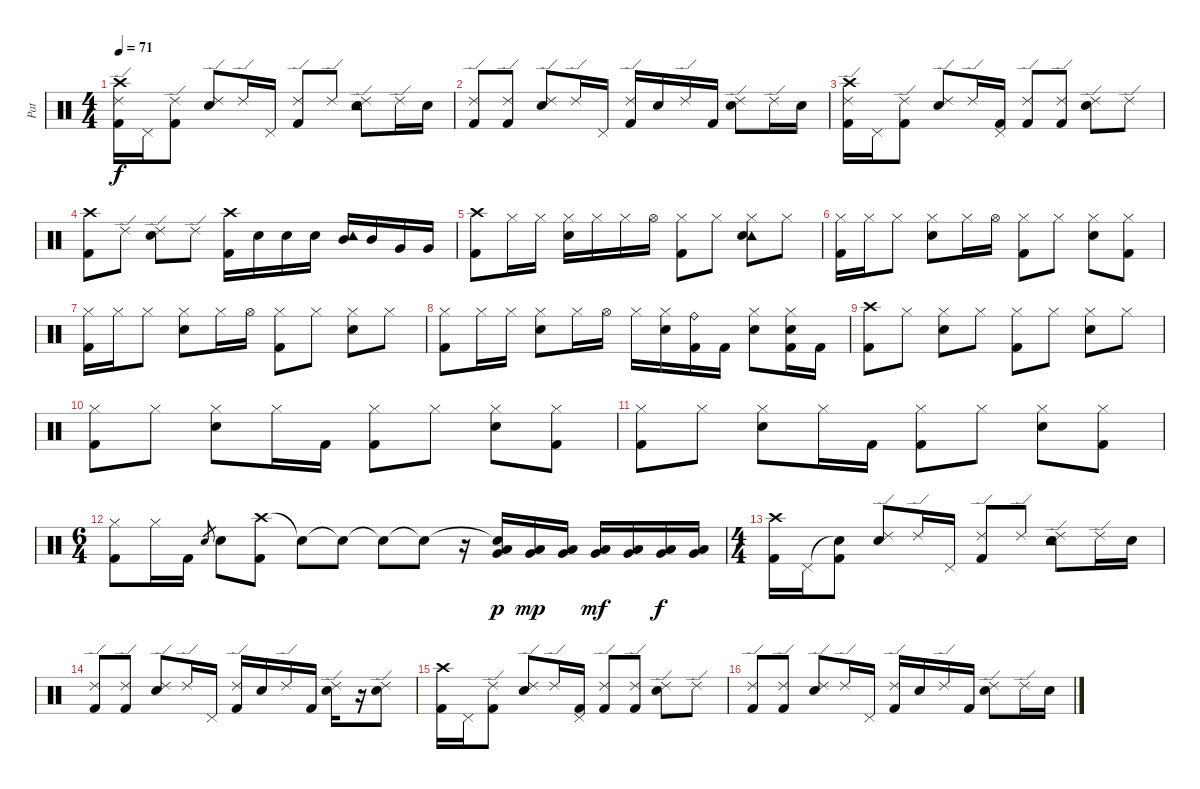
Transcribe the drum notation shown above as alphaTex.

\track ("Pat" "Pat") {instrument percussion}
\staff {score}
\articulation defaults
\ts (4 4)
\tempo 71
\clef neutral
\ks c
("Crash high (hit)" "Ride (edge) 2" "Kick (hit) 2").16{dy f} "Pedal Hi-Hat (hit)".16 ("Ride (edge) 2" "Kick (hit) 2").8 ("Ride (edge) 2" "Snare (hit) 2").8 "Ride (edge) 2".16 "Pedal Hi-Hat (hit)".16 ("Ride (edge) 2" "Kick (hit) 2").8 "Ride (edge) 2".8 ("Tambourine (hit)" "Ride (edge) 2" "Snare (hit) 2").8 "Ride (edge) 2".16 "Snare (hit) 2".16 |
("Ride (edge) 2" "Kick (hit) 2").8 ("Ride (edge) 2" "Kick (hit) 2").8 ("Ride (edge) 2" "Snare (hit) 2").8 "Ride (edge) 2".16 "Pedal Hi-Hat (hit)".16 ("Ride (edge) 2" "Kick (hit) 2").16 "Snare (hit) 2".16 "Ride (edge) 2".16 "Kick (hit) 2".16 ("Ride (edge) 2" "Snare (hit) 2").8 "Ride (edge) 2".16 "Snare (hit) 2".16 |
("Crash high (hit)" "Ride (edge) 2" "Kick (hit) 2").16 "Pedal Hi-Hat (hit)".16 ("Ride (edge) 2" "Kick (hit) 2").8 ("Ride (edge) 2" "Snare (hit) 2").8 "Ride (edge) 2".16 ("Pedal Hi-Hat (hit)" "Kick (hit) 2").16 ("Ride (edge) 2" "Kick (hit) 2").8 ("Ride (edge) 2" "Kick (hit) 2").8 ("Ride (edge) 2" "Snare (hit) 2").8 "Ride (edge) 2".8 |
("Crash high (hit)" "Kick (hit) 2").8 "Ride (edge) 2".8 ("Ride (edge) 2" "Snare (hit) 2").8 "Ride (edge) 2".8 ("Crash high (hit)" "Kick (hit) 2").16 "Snare (hit) 2".16 "Snare (hit) 2".16 "Snare (hit) 2".16 ("Tambourine (hit)" "Mid Tom (hit)").16 "Mid Tom (hit)".16 "Very Low Tom (hit)".16 "Very Low Tom (hit)".16 |
("Crash high (hit)" "Kick (hit) 2").8 "Hi-Hat (closed)".16 "Hi-Hat (closed)".16 ("Hi-Hat (closed)" "Snare (hit) 2").16 "Hi-Hat (closed)".16 "Hi-Hat (closed)".16 "Hi-Hat (open)".16 ("Hi-Hat (closed)" "Kick (hit) 2").8 "Hi-Hat (closed)".8 ("Tambourine (hit)" "Hi-Hat (closed)" "Snare (hit) 2").8 "Hi-Hat (closed)".8 |
("Hi-Hat (closed)" "Kick (hit) 2").16 "Hi-Hat (closed)".16 "Hi-Hat (closed)".8 ("Hi-Hat (closed)" "Snare (hit) 2").8 "Hi-Hat (closed)".16 "Hi-Hat (open)".16 ("Hi-Hat (closed)" "Kick (hit) 2").8 "Hi-Hat (closed)".8 ("Hi-Hat (closed)" "Snare (hit) 2").8 ("Hi-Hat (closed)" "Kick (hit) 2").8 |
("Hi-Hat (closed)" "Kick (hit) 2").16 "Hi-Hat (closed)".16 "Hi-Hat (closed)".8 ("Hi-Hat (closed)" "Snare (hit) 2").8 "Hi-Hat (closed)".16 "Hi-Hat (open)".16 ("Hi-Hat (closed)" "Kick (hit) 2").8 "Hi-Hat (closed)".8 ("Hi-Hat (closed)" "Snare (hit) 2").8 "Hi-Hat (closed)".8 |
("Hi-Hat (closed)" "Kick (hit) 2").8 "Hi-Hat (closed)".16 "Hi-Hat (closed)".16 ("Hi-Hat (closed)" "Snare (hit) 2").8 "Hi-Hat (closed)".16 "Hi-Hat (open)".16 "Hi-Hat (closed)".16 ("Hi-Hat (closed)" "Snare (hit) 2").16 ("Ride (bell)" "Kick (hit) 2").16 "Kick (hit) 2".16 ("Hi-Hat (closed)" "Snare (hit) 2").8 ("Hi-Hat (closed)" "Snare (hit) 2" "Kick (hit) 2").16 "Kick (hit) 2".16 |
("Crash high (hit)" "Kick (hit) 2").8 "Hi-Hat (closed)".8 ("Hi-Hat (closed)" "Snare (hit) 2").8 "Hi-Hat (closed)".8 ("Hi-Hat (closed)" "Kick (hit) 2").8 "Hi-Hat (closed)".8 ("Hi-Hat (closed)" "Snare (hit) 2").8 "Hi-Hat (closed)".8 |
("Hi-Hat (closed)" "Kick (hit) 2").8 "Hi-Hat (closed)".8 ("Hi-Hat (closed)" "Snare (hit) 2").8 "Hi-Hat (closed)".16 "Kick (hit) 2".16 ("Hi-Hat (closed)" "Kick (hit) 2").8 "Hi-Hat (closed)".8 ("Hi-Hat (closed)" "Snare (hit) 2").8 ("Hi-Hat (closed)" "Kick (hit) 2").8 |
("Hi-Hat (closed)" "Kick (hit) 2").8 "Hi-Hat (closed)".8 ("Hi-Hat (closed)" "Snare (hit) 2").8 "Hi-Hat (closed)".16 "Kick (hit) 2".16 ("Hi-Hat (closed)" "Kick (hit) 2").8 "Hi-Hat (closed)".8 ("Hi-Hat (closed)" "Snare (hit) 2").8 ("Hi-Hat (closed)" "Kick (hit) 2").8 |
\ts (6 4)
("Hi-Hat (closed)" "Kick (hit) 2").8 "Hi-Hat (closed)".16 "Kick (hit) 2".16 "Snare (hit) 2".8{gr} "Snare (hit) 2".8 ("Crash high (hit)" "Kick (hit) 2").8 "Snare (hit)"{t}.8 "Snare (hit)"{t}.8 "Snare (hit)"{t}.8 "Snare (hit)"{t}.8 r.16 ("Snare (hit)"{t} "Low Tom (hit)" "Very Low Tom (hit)").16{dy p} ("Low Tom (hit)" "Very Low Tom (hit)").16{dy mp} ("Low Tom (hit)" "Very Low Tom (hit)").16 ("Low Tom (hit)" "Very Low Tom (hit)").16{dy mf} ("Low Tom (hit)" "Very Low Tom (hit)").16 ("Low Tom (hit)" "Very Low Tom (hit)").16{dy f} ("Low Tom (hit)" "Very Low Tom (hit)").16 |
\ts (4 4)
("Crash high (hit)" "Kick (hit) 2").16 "Pedal Hi-Hat (hit)".16 ("Snare (hit)"{t} "Kick (hit) 2").8 ("Ride (edge) 2" "Snare (hit) 2").8 "Ride (edge) 2".16 "Pedal Hi-Hat (hit)".16 ("Ride (edge) 2" "Kick (hit) 2").8 "Ride (edge) 2".8 ("Tambourine (hit)" "Ride (edge) 2" "Snare (hit) 2").8 "Ride (edge) 2".16 "Snare (hit) 2".16 |
("Ride (edge) 2" "Kick (hit) 2").8 ("Ride (edge) 2" "Kick (hit) 2").8 ("Ride (edge) 2" "Snare (hit) 2").8 "Ride (edge) 2".16 "Pedal Hi-Hat (hit)".16 ("Ride (edge) 2" "Kick (hit) 2").16 "Snare (hit) 2".16 "Ride (edge) 2".16 "Kick (hit) 2".16 ("Ride (edge) 2" "Snare (hit) 2").16 r.16 ("Ride (edge) 2" "Snare (hit) 2").8 |
("Crash high (hit)" "Kick (hit) 2").16 "Pedal Hi-Hat (hit)".16 ("Ride (edge) 2" "Kick (hit) 2").8 ("Ride (edge) 2" "Snare (hit) 2").8 "Ride (edge) 2".16 ("Pedal Hi-Hat (hit)" "Kick (hit) 2").16 ("Ride (edge) 2" "Kick (hit) 2").8 ("Ride (edge) 2" "Kick (hit) 2").8 ("Ride (edge) 2" "Snare (hit) 2").8 "Ride (edge) 2".8 |
("Ride (edge) 2" "Kick (hit) 2").8 ("Ride (edge) 2" "Kick (hit) 2").8 ("Ride (edge) 2" "Snare (hit) 2").8 "Ride (edge) 2".16 "Pedal Hi-Hat (hit)".16 ("Ride (edge) 2" "Kick (hit) 2").16 "Snare (hit) 2".16 "Ride (edge) 2".16 "Kick (hit) 2".16 ("Ride (edge) 2" "Snare (hit) 2").8 "Ride (edge) 2".16 "Snare (hit) 2".16
